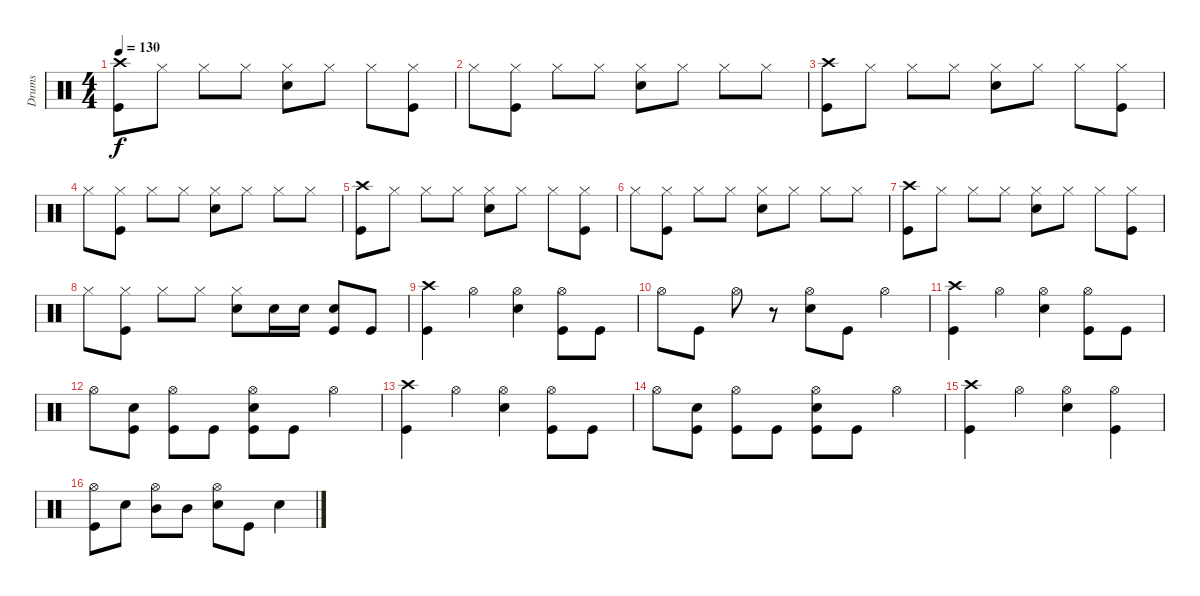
\track ("Drums" "Drums") {instrument percussion}
\staff {score}
\articulation defaults
\ts (4 4)
\tempo 130
\clef neutral
\ks c
("Crash high (hit)" "Kick (hit)").8{dy f} "Hi-Hat (closed)".8 "Hi-Hat (closed)".8 "Hi-Hat (closed)".8 ("Hi-Hat (closed)" "Snare (hit) 2").8 "Hi-Hat (closed)".8 "Hi-Hat (closed)".8 ("Hi-Hat (closed)" "Kick (hit)").8 |
"Hi-Hat (closed)".8 ("Hi-Hat (closed)" "Kick (hit)").8 "Hi-Hat (closed)".8 "Hi-Hat (closed)".8 ("Hi-Hat (closed)" "Snare (hit) 2").8 "Hi-Hat (closed)".8 "Hi-Hat (closed)".8 "Hi-Hat (closed)".8 |
("Crash high (hit)" "Kick (hit)").8 "Hi-Hat (closed)".8 "Hi-Hat (closed)".8 "Hi-Hat (closed)".8 ("Hi-Hat (closed)" "Snare (hit) 2").8 "Hi-Hat (closed)".8 "Hi-Hat (closed)".8 ("Hi-Hat (closed)" "Kick (hit)").8 |
"Hi-Hat (closed)".8 ("Hi-Hat (closed)" "Kick (hit)").8 "Hi-Hat (closed)".8 "Hi-Hat (closed)".8 ("Hi-Hat (closed)" "Snare (hit) 2").8 "Hi-Hat (closed)".8 "Hi-Hat (closed)".8 "Hi-Hat (closed)".8 |
("Crash high (hit)" "Kick (hit)").8 "Hi-Hat (closed)".8 "Hi-Hat (closed)".8 "Hi-Hat (closed)".8 ("Hi-Hat (closed)" "Snare (hit) 2").8 "Hi-Hat (closed)".8 "Hi-Hat (closed)".8 ("Hi-Hat (closed)" "Kick (hit)").8 |
"Hi-Hat (closed)".8 ("Hi-Hat (closed)" "Kick (hit)").8 "Hi-Hat (closed)".8 "Hi-Hat (closed)".8 ("Hi-Hat (closed)" "Snare (hit) 2").8 "Hi-Hat (closed)".8 "Hi-Hat (closed)".8 "Hi-Hat (closed)".8 |
("Crash high (hit)" "Kick (hit)").8 "Hi-Hat (closed)".8 "Hi-Hat (closed)".8 "Hi-Hat (closed)".8 ("Hi-Hat (closed)" "Snare (hit) 2").8 "Hi-Hat (closed)".8 "Hi-Hat (closed)".8 ("Hi-Hat (closed)" "Kick (hit)").8 |
"Hi-Hat (closed)".8 ("Hi-Hat (closed)" "Kick (hit)").8 "Hi-Hat (closed)".8 "Hi-Hat (closed)".8 ("Hi-Hat (closed)" "Snare (hit) 2").8 "Snare (hit) 2".16 "Snare (hit) 2".16 ("Snare (hit) 2" "Kick (hit)").8 "Kick (hit)".8 |
("Crash high (hit)" "Kick (hit)").4 "Hi-Hat (open)".4 ("Hi-Hat (open)" "Snare (hit) 2").4 ("Hi-Hat (open)" "Kick (hit)").8 "Kick (hit)".8 |
"Hi-Hat (open)".8 "Kick (hit)".8 "Hi-Hat (open)".8 r.8 ("Hi-Hat (open)" "Snare (hit) 2").8 "Kick (hit)".8 "Hi-Hat (open)".4 |
("Crash high (hit)" "Kick (hit)").4 "Hi-Hat (open)".4 ("Hi-Hat (open)" "Snare (hit) 2").4 ("Hi-Hat (open)" "Kick (hit)").8 "Kick (hit)".8 |
"Hi-Hat (open)".8 ("Snare (hit) 2" "Kick (hit)").8 ("Hi-Hat (open)" "Kick (hit)").8 "Kick (hit)".8 ("Hi-Hat (open)" "Snare (hit) 2" "Kick (hit)").8 "Kick (hit)".8 "Hi-Hat (open)".4 |
("Crash high (hit)" "Kick (hit)").4 "Hi-Hat (open)".4 ("Hi-Hat (open)" "Snare (hit) 2").4 ("Hi-Hat (open)" "Kick (hit)").8 "Kick (hit)".8 |
"Hi-Hat (open)".8 ("Snare (hit) 2" "Kick (hit)").8 ("Hi-Hat (open)" "Kick (hit)").8 "Kick (hit)".8 ("Hi-Hat (open)" "Snare (hit) 2" "Kick (hit)").8 "Kick (hit)".8 "Hi-Hat (open)".4 |
("Crash high (hit)" "Kick (hit)").4 "Hi-Hat (open)".4 ("Hi-Hat (open)" "Snare (hit) 2").4 ("Hi-Hat (open)" "Kick (hit)").4 |
("Hi-Hat (open)" "Kick (hit)").8 "Snare (hit) 2".8 ("Hi-Hat (open)" "Mid Tom (hit)").8 "Mid Tom (hit)".8 ("Hi-Hat (open)" "Snare (hit) 2").8 "Kick (hit)".8 "Snare (hit) 2".4
